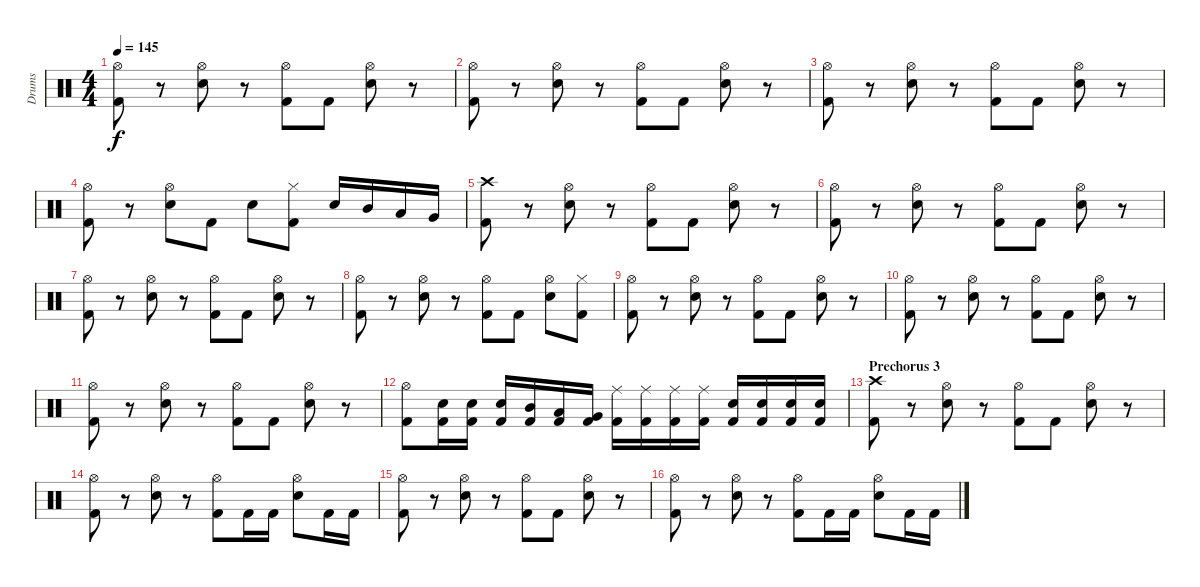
\track ("Drums" "Drums") {instrument percussion}
\staff {score}
\articulation defaults
\ts (4 4)
\tempo 145
\clef neutral
\ks c
("Hi-Hat (open)" "Kick (hit) 2").8{dy f} r.8 ("Hi-Hat (open)" "Snare (hit) 2").8 r.8 ("Hi-Hat (open)" "Kick (hit) 2").8 "Kick (hit) 2".8 ("Hi-Hat (open)" "Snare (hit) 2").8 r.8 |
("Hi-Hat (open)" "Kick (hit) 2").8 r.8 ("Hi-Hat (open)" "Snare (hit) 2").8 r.8 ("Hi-Hat (open)" "Kick (hit) 2").8 "Kick (hit) 2".8 ("Hi-Hat (open)" "Snare (hit) 2").8 r.8 |
("Hi-Hat (open)" "Kick (hit) 2").8 r.8 ("Hi-Hat (open)" "Snare (hit) 2").8 r.8 ("Hi-Hat (open)" "Kick (hit) 2").8 "Kick (hit) 2".8 ("Hi-Hat (open)" "Snare (hit) 2").8 r.8 |
("Hi-Hat (open)" "Kick (hit) 2").8 r.8 ("Hi-Hat (open)" "Snare (hit) 2").8 "Kick (hit) 2".8 "Snare (hit) 2".8 ("Hi-Hat (closed)" "Kick (hit) 2").8 "Snare (hit) 2".16 "Mid Tom (hit)".16 "Low Tom (hit)".16 "Very Low Tom (hit)".16 |
\section ("" "")
("Crash high (hit)" "Kick (hit) 2").8 r.8 ("Hi-Hat (open)" "Snare (hit) 2").8 r.8 ("Hi-Hat (open)" "Kick (hit) 2").8 "Kick (hit) 2".8 ("Hi-Hat (open)" "Snare (hit) 2").8 r.8 |
("Hi-Hat (open)" "Kick (hit) 2").8 r.8 ("Hi-Hat (open)" "Snare (hit) 2").8 r.8 ("Hi-Hat (open)" "Kick (hit) 2").8 "Kick (hit) 2".8 ("Hi-Hat (open)" "Snare (hit) 2").8 r.8 |
("Hi-Hat (open)" "Kick (hit) 2").8 r.8 ("Hi-Hat (open)" "Snare (hit) 2").8 r.8 ("Hi-Hat (open)" "Kick (hit) 2").8 "Kick (hit) 2".8 ("Hi-Hat (open)" "Snare (hit) 2").8 r.8 |
("Hi-Hat (open)" "Kick (hit) 2").8 r.8 ("Hi-Hat (open)" "Snare (hit) 2").8 r.8 ("Hi-Hat (open)" "Kick (hit) 2").8 "Kick (hit) 2".8 ("Hi-Hat (open)" "Snare (hit) 2").8 ("Hi-Hat (closed)" "Kick (hit) 2").8 |
("Hi-Hat (open)" "Kick (hit) 2").8 r.8 ("Hi-Hat (open)" "Snare (hit) 2").8 r.8 ("Hi-Hat (open)" "Kick (hit) 2").8 "Kick (hit) 2".8 ("Hi-Hat (open)" "Snare (hit) 2").8 r.8 |
("Hi-Hat (open)" "Kick (hit) 2").8 r.8 ("Hi-Hat (open)" "Snare (hit) 2").8 r.8 ("Hi-Hat (open)" "Kick (hit) 2").8 "Kick (hit) 2".8 ("Hi-Hat (open)" "Snare (hit) 2").8 r.8 |
("Hi-Hat (open)" "Kick (hit) 2").8 r.8 ("Hi-Hat (open)" "Snare (hit) 2").8 r.8 ("Hi-Hat (open)" "Kick (hit) 2").8 "Kick (hit) 2".8 ("Hi-Hat (open)" "Snare (hit) 2").8 r.8 |
("Hi-Hat (open)" "Kick (hit) 2").8 ("Snare (hit) 2" "Kick (hit) 2").16 ("Snare (hit) 2" "Kick (hit) 2").16 ("Snare (hit) 2" "Kick (hit) 2").16 ("Mid Tom (hit)" "Kick (hit) 2").16 ("Low Tom (hit)" "Kick (hit) 2").16 ("Very Low Tom (hit)" "Kick (hit) 2").16 ("Ride (middle)" "Kick (hit) 2").16 ("Ride (middle)" "Kick (hit) 2").16 ("Ride (middle)" "Kick (hit) 2").16 ("Ride (middle)" "Kick (hit) 2").16 ("Snare (hit) 2" "Kick (hit) 2").16 ("Snare (hit) 2" "Kick (hit) 2").16 ("Snare (hit) 2" "Kick (hit) 2").16 ("Snare (hit) 2" "Kick (hit) 2").16 |
\section ("" "Prechorus 3")
("Crash high (hit)" "Kick (hit) 2").8 r.8 ("Hi-Hat (open)" "Snare (hit) 2").8 r.8 ("Hi-Hat (open)" "Kick (hit) 2").8 "Kick (hit) 2".8 ("Hi-Hat (open)" "Snare (hit) 2").8 r.8 |
("Hi-Hat (open)" "Kick (hit) 2").8 r.8 ("Hi-Hat (open)" "Snare (hit) 2").8 r.8 ("Hi-Hat (open)" "Kick (hit) 2").8 "Kick (hit) 2".16 "Kick (hit) 2".16 ("Hi-Hat (open)" "Snare (hit) 2").8 "Kick (hit) 2".16 "Kick (hit) 2".16 |
("Hi-Hat (open)" "Kick (hit) 2").8 r.8 ("Hi-Hat (open)" "Snare (hit) 2").8 r.8 ("Hi-Hat (open)" "Kick (hit) 2").8 "Kick (hit) 2".8 ("Hi-Hat (open)" "Snare (hit) 2").8 r.8 |
("Hi-Hat (open)" "Kick (hit) 2").8 r.8 ("Hi-Hat (open)" "Snare (hit) 2").8 r.8 ("Hi-Hat (open)" "Kick (hit) 2").8 "Kick (hit) 2".16 "Kick (hit) 2".16 ("Hi-Hat (open)" "Snare (hit) 2").8 "Kick (hit) 2".16 "Kick (hit) 2".16
